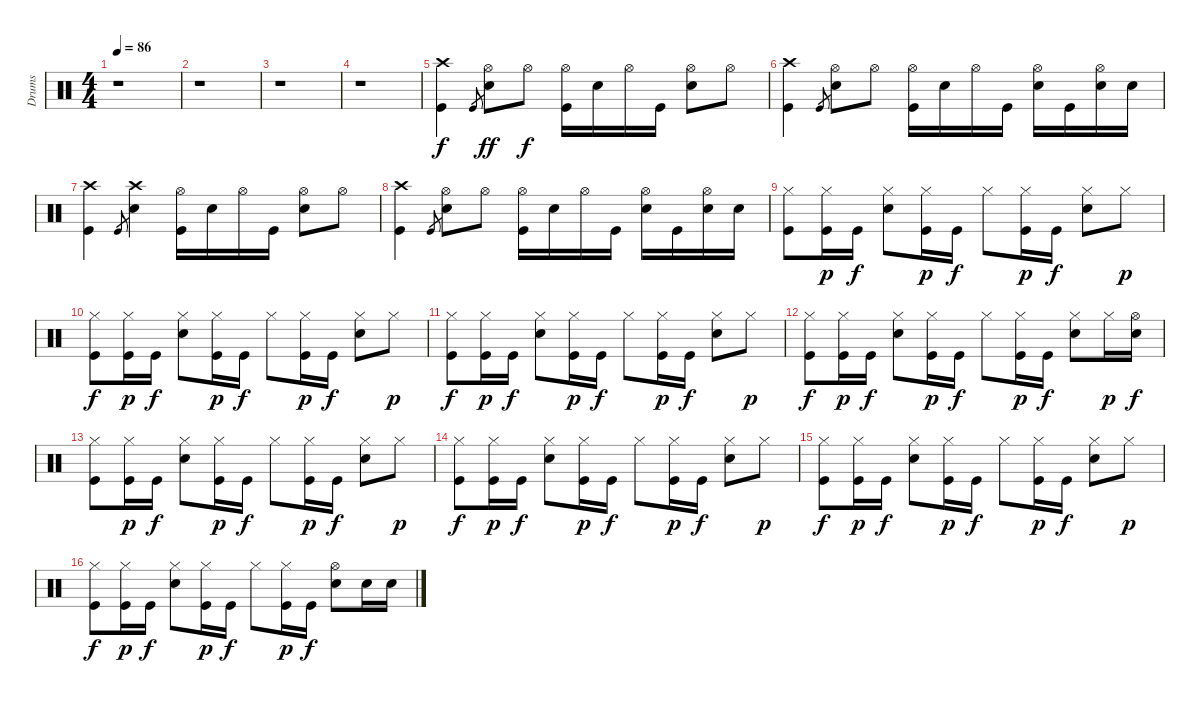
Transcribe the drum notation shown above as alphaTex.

\track ("Drums" "Drums") {instrument percussion}
\staff {score}
\articulation defaults
\ts (4 4)
\tempo 86
\clef neutral
\ks c
r.1{dy f} |
r.1 |
r.1 |
r.1 |
("Crash high (hit)" "Kick (hit)").4 "Kick (hit)".8{gr} ("Hi-Hat (open)" "Snare (hit) 2").8{dy ff} "Hi-Hat (open)".8{dy f} ("Hi-Hat (open)" "Kick (hit)").16 "Snare (hit) 2".16 "Hi-Hat (open)".16 "Kick (hit)".16 ("Hi-Hat (open)" "Snare (hit) 2").8 "Hi-Hat (open)".8 |
("Crash high (hit)" "Kick (hit)").4 "Kick (hit)".8{gr} ("Hi-Hat (open)" "Snare (hit) 2").8 "Hi-Hat (open)".8 ("Hi-Hat (open)" "Kick (hit)").16 "Snare (hit) 2".16 "Hi-Hat (open)".16 "Kick (hit)".16 ("Hi-Hat (open)" "Snare (hit) 2").16 "Kick (hit)".16 ("Hi-Hat (open)" "Snare (hit) 2").16 "Snare (hit) 2".16 |
("Crash high (hit)" "Kick (hit)").4 "Kick (hit)".8{gr} ("Crash high (hit)" "Snare (hit) 2").4 ("Hi-Hat (open)" "Kick (hit)").16 "Snare (hit) 2".16 "Hi-Hat (open)".16 "Kick (hit)".16 ("Hi-Hat (open)" "Snare (hit) 2").8 "Hi-Hat (open)".8 |
("Crash high (hit)" "Kick (hit)").4 "Kick (hit)".8{gr} ("Hi-Hat (open)" "Snare (hit) 2").8 "Hi-Hat (open)".8 ("Hi-Hat (open)" "Kick (hit)").16 "Snare (hit) 2".16 "Hi-Hat (open)".16 "Kick (hit)".16 ("Hi-Hat (open)" "Snare (hit) 2").16 "Kick (hit)".16 ("Hi-Hat (open)" "Snare (hit) 2").16 "Snare (hit) 2".16 |
("Hi-Hat (closed)" "Kick (hit)").8 ("Hi-Hat (closed)" "Kick (hit)").16{dy p} "Kick (hit)".16{dy f} ("Hi-Hat (closed)" "Snare (hit) 2").8 ("Hi-Hat (closed)" "Kick (hit)").16{dy p} "Kick (hit)".16{dy f} "Hi-Hat (closed)".8 ("Hi-Hat (closed)" "Kick (hit)").16{dy p} "Kick (hit)".16{dy f} ("Hi-Hat (closed)" "Snare (hit) 2").8 "Hi-Hat (closed)".8{dy p} |
("Hi-Hat (closed)" "Kick (hit)").8{dy f} ("Hi-Hat (closed)" "Kick (hit)").16{dy p} "Kick (hit)".16{dy f} ("Hi-Hat (closed)" "Snare (hit) 2").8 ("Hi-Hat (closed)" "Kick (hit)").16{dy p} "Kick (hit)".16{dy f} "Hi-Hat (closed)".8 ("Hi-Hat (closed)" "Kick (hit)").16{dy p} "Kick (hit)".16{dy f} ("Hi-Hat (closed)" "Snare (hit) 2").8 "Hi-Hat (closed)".8{dy p} |
("Hi-Hat (closed)" "Kick (hit)").8{dy f} ("Hi-Hat (closed)" "Kick (hit)").16{dy p} "Kick (hit)".16{dy f} ("Hi-Hat (closed)" "Snare (hit) 2").8 ("Hi-Hat (closed)" "Kick (hit)").16{dy p} "Kick (hit)".16{dy f} "Hi-Hat (closed)".8 ("Hi-Hat (closed)" "Kick (hit)").16{dy p} "Kick (hit)".16{dy f} ("Hi-Hat (closed)" "Snare (hit) 2").8 "Hi-Hat (closed)".8{dy p} |
("Hi-Hat (closed)" "Kick (hit)").8{dy f} ("Hi-Hat (closed)" "Kick (hit)").16{dy p} "Kick (hit)".16{dy f} ("Hi-Hat (closed)" "Snare (hit) 2").8 ("Hi-Hat (closed)" "Kick (hit)").16{dy p} "Kick (hit)".16{dy f} "Hi-Hat (closed)".8 ("Hi-Hat (closed)" "Kick (hit)").16{dy p} "Kick (hit)".16{dy f} ("Hi-Hat (closed)" "Snare (hit) 2").8 "Hi-Hat (closed)".16{dy p} ("Hi-Hat (open)" "Snare (hit) 2").16{dy f} |
("Hi-Hat (closed)" "Kick (hit)").8 ("Hi-Hat (closed)" "Kick (hit)").16{dy p} "Kick (hit)".16{dy f} ("Hi-Hat (closed)" "Snare (hit) 2").8 ("Hi-Hat (closed)" "Kick (hit)").16{dy p} "Kick (hit)".16{dy f} "Hi-Hat (closed)".8 ("Hi-Hat (closed)" "Kick (hit)").16{dy p} "Kick (hit)".16{dy f} ("Hi-Hat (closed)" "Snare (hit) 2").8 "Hi-Hat (closed)".8{dy p} |
("Hi-Hat (closed)" "Kick (hit)").8{dy f} ("Hi-Hat (closed)" "Kick (hit)").16{dy p} "Kick (hit)".16{dy f} ("Hi-Hat (closed)" "Snare (hit) 2").8 ("Hi-Hat (closed)" "Kick (hit)").16{dy p} "Kick (hit)".16{dy f} "Hi-Hat (closed)".8 ("Hi-Hat (closed)" "Kick (hit)").16{dy p} "Kick (hit)".16{dy f} ("Hi-Hat (closed)" "Snare (hit) 2").8 "Hi-Hat (closed)".8{dy p} |
("Hi-Hat (closed)" "Kick (hit)").8{dy f} ("Hi-Hat (closed)" "Kick (hit)").16{dy p} "Kick (hit)".16{dy f} ("Hi-Hat (closed)" "Snare (hit) 2").8 ("Hi-Hat (closed)" "Kick (hit)").16{dy p} "Kick (hit)".16{dy f} "Hi-Hat (closed)".8 ("Hi-Hat (closed)" "Kick (hit)").16{dy p} "Kick (hit)".16{dy f} ("Hi-Hat (closed)" "Snare (hit) 2").8 "Hi-Hat (closed)".8{dy p} |
("Hi-Hat (closed)" "Kick (hit)").8{dy f} ("Hi-Hat (closed)" "Kick (hit)").16{dy p} "Kick (hit)".16{dy f} ("Hi-Hat (closed)" "Snare (hit) 2").8 ("Hi-Hat (closed)" "Kick (hit)").16{dy p} "Kick (hit)".16{dy f} "Hi-Hat (closed)".8 ("Hi-Hat (closed)" "Kick (hit)").16{dy p} "Kick (hit)".16{dy f} ("Hi-Hat (open)" "Snare (hit) 2").8 "Snare (hit) 2".16 "Snare (hit) 2".16
